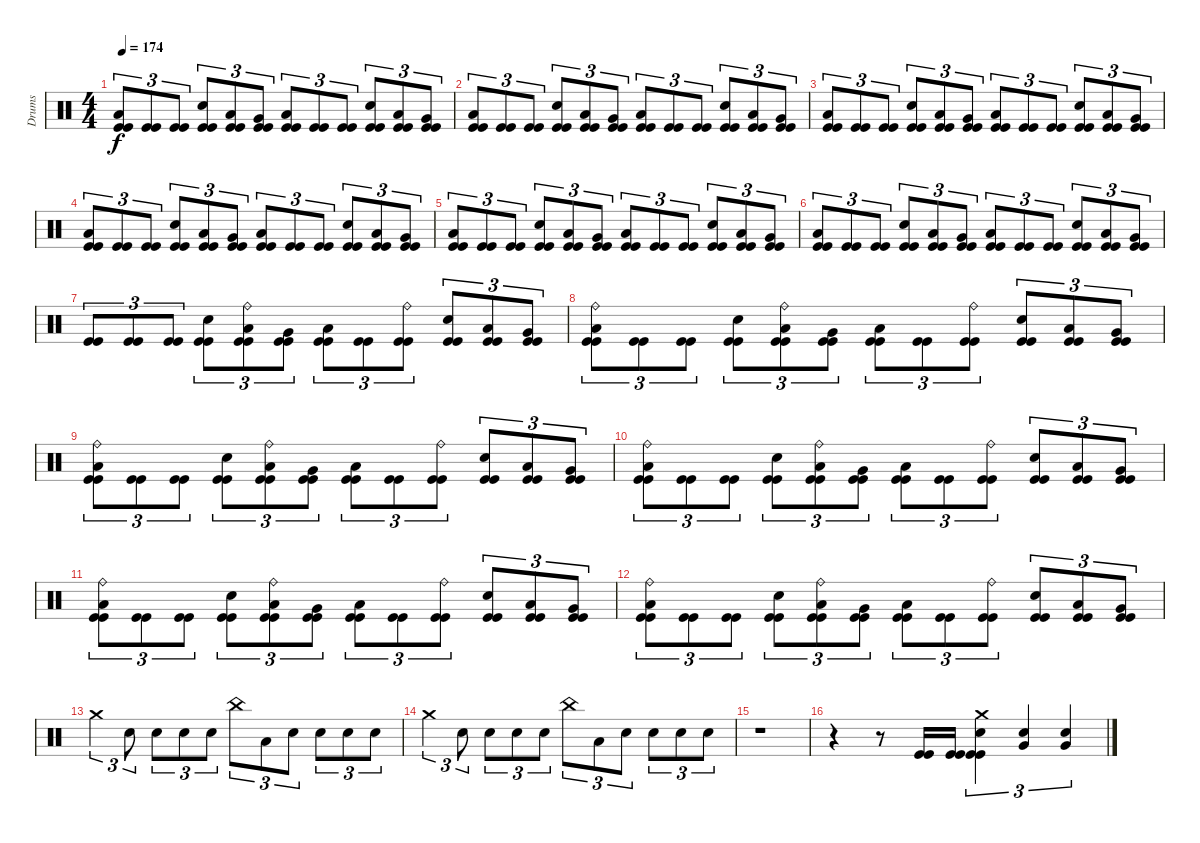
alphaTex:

\track ("Drums" "Drums") {instrument percussion}
\staff {score}
\articulation defaults
\ts (4 4)
\tempo 174
\clef neutral
\ks c
("Kick (hit)" "Kick (hit)" "Low Floor Tom (hit)").8{tu (3 2) dy f} ("Kick (hit)" "Kick (hit)").8{tu (3 2)} ("Kick (hit)" "Kick (hit)").8{tu (3 2)} ("Kick (hit)" "Kick (hit)" "Snare (hit) 2").8{tu (3 2)} ("Kick (hit)" "Kick (hit)" "Low Tom (hit)").8{tu (3 2)} ("Kick (hit)" "Kick (hit)" "Very Low Tom (hit)").8{tu (3 2)} ("Kick (hit)" "Kick (hit)" "Low Floor Tom (hit)").8{tu (3 2)} ("Kick (hit)" "Kick (hit)").8{tu (3 2)} ("Kick (hit)" "Kick (hit)").8{tu (3 2)} ("Kick (hit)" "Kick (hit)" "Snare (hit) 2").8{tu (3 2)} ("Kick (hit)" "Kick (hit)" "Low Tom (hit)").8{tu (3 2)} ("Kick (hit)" "Kick (hit)" "Very Low Tom (hit)").8{tu (3 2)} |
("Kick (hit)" "Kick (hit)" "Low Floor Tom (hit)").8{tu (3 2)} ("Kick (hit)" "Kick (hit)").8{tu (3 2)} ("Kick (hit)" "Kick (hit)").8{tu (3 2)} ("Kick (hit)" "Kick (hit)" "Snare (hit) 2").8{tu (3 2)} ("Kick (hit)" "Kick (hit)" "Low Tom (hit)").8{tu (3 2)} ("Kick (hit)" "Kick (hit)" "Very Low Tom (hit)").8{tu (3 2)} ("Kick (hit)" "Kick (hit)" "Low Floor Tom (hit)").8{tu (3 2)} ("Kick (hit)" "Kick (hit)").8{tu (3 2)} ("Kick (hit)" "Kick (hit)").8{tu (3 2)} ("Kick (hit)" "Kick (hit)" "Snare (hit) 2").8{tu (3 2)} ("Kick (hit)" "Kick (hit)" "Low Tom (hit)").8{tu (3 2)} ("Kick (hit)" "Kick (hit)" "Very Low Tom (hit)").8{tu (3 2)} |
("Kick (hit)" "Kick (hit)" "Low Floor Tom (hit)").8{tu (3 2)} ("Kick (hit)" "Kick (hit)").8{tu (3 2)} ("Kick (hit)" "Kick (hit)").8{tu (3 2)} ("Kick (hit)" "Kick (hit)" "Snare (hit) 2").8{tu (3 2)} ("Kick (hit)" "Kick (hit)" "Low Tom (hit)").8{tu (3 2)} ("Kick (hit)" "Kick (hit)" "Very Low Tom (hit)").8{tu (3 2)} ("Kick (hit)" "Kick (hit)" "Low Floor Tom (hit)").8{tu (3 2)} ("Kick (hit)" "Kick (hit)").8{tu (3 2)} ("Kick (hit)" "Kick (hit)").8{tu (3 2)} ("Kick (hit)" "Kick (hit)" "Snare (hit) 2").8{tu (3 2)} ("Kick (hit)" "Kick (hit)" "Low Tom (hit)").8{tu (3 2)} ("Kick (hit)" "Kick (hit)" "Very Low Tom (hit)").8{tu (3 2)} |
("Kick (hit)" "Kick (hit)" "Low Floor Tom (hit)").8{tu (3 2)} ("Kick (hit)" "Kick (hit)").8{tu (3 2)} ("Kick (hit)" "Kick (hit)").8{tu (3 2)} ("Kick (hit)" "Kick (hit)" "Snare (hit) 2").8{tu (3 2)} ("Kick (hit)" "Kick (hit)" "Low Tom (hit)").8{tu (3 2)} ("Kick (hit)" "Kick (hit)" "Very Low Tom (hit)").8{tu (3 2)} ("Kick (hit)" "Kick (hit)" "Low Floor Tom (hit)").8{tu (3 2)} ("Kick (hit)" "Kick (hit)").8{tu (3 2)} ("Kick (hit)" "Kick (hit)").8{tu (3 2)} ("Kick (hit)" "Kick (hit)" "Snare (hit) 2").8{tu (3 2)} ("Kick (hit)" "Kick (hit)" "Low Tom (hit)").8{tu (3 2)} ("Kick (hit)" "Kick (hit)" "Very Low Tom (hit)").8{tu (3 2)} |
("Kick (hit)" "Kick (hit)" "Low Floor Tom (hit)").8{tu (3 2)} ("Kick (hit)" "Kick (hit)").8{tu (3 2)} ("Kick (hit)" "Kick (hit)").8{tu (3 2)} ("Kick (hit)" "Kick (hit)" "Snare (hit) 2").8{tu (3 2)} ("Kick (hit)" "Kick (hit)" "Low Tom (hit)").8{tu (3 2)} ("Kick (hit)" "Kick (hit)" "Very Low Tom (hit)").8{tu (3 2)} ("Kick (hit)" "Kick (hit)" "Low Floor Tom (hit)").8{tu (3 2)} ("Kick (hit)" "Kick (hit)").8{tu (3 2)} ("Kick (hit)" "Kick (hit)").8{tu (3 2)} ("Kick (hit)" "Kick (hit)" "Snare (hit) 2").8{tu (3 2)} ("Kick (hit)" "Kick (hit)" "Low Tom (hit)").8{tu (3 2)} ("Kick (hit)" "Kick (hit)" "Very Low Tom (hit)").8{tu (3 2)} |
("Kick (hit)" "Kick (hit)" "Low Floor Tom (hit)").8{tu (3 2)} ("Kick (hit)" "Kick (hit)").8{tu (3 2)} ("Kick (hit)" "Kick (hit)").8{tu (3 2)} ("Kick (hit)" "Kick (hit)" "Snare (hit) 2").8{tu (3 2)} ("Kick (hit)" "Kick (hit)" "Low Tom (hit)").8{tu (3 2)} ("Kick (hit)" "Kick (hit)" "Very Low Tom (hit)").8{tu (3 2)} ("Kick (hit)" "Kick (hit)" "Low Floor Tom (hit)").8{tu (3 2)} ("Kick (hit)" "Kick (hit)").8{tu (3 2)} ("Kick (hit)" "Kick (hit)").8{tu (3 2)} ("Kick (hit)" "Kick (hit)" "Snare (hit) 2").8{tu (3 2)} ("Kick (hit)" "Kick (hit)" "Low Tom (hit)").8{tu (3 2)} ("Kick (hit)" "Kick (hit)" "Very Low Tom (hit)").8{tu (3 2)} |
("Kick (hit)" "Kick (hit)").8{tu (3 2)} ("Kick (hit)" "Kick (hit)").8{tu (3 2)} ("Kick (hit)" "Kick (hit)").8{tu (3 2)} ("Kick (hit)" "Kick (hit)" "Snare (hit) 2").8{tu (3 2)} ("Kick (hit)" "Kick (hit)" "Low Tom (hit)" "Ride (bell)").8{tu (3 2)} ("Kick (hit)" "Kick (hit)" "Very Low Tom (hit)").8{tu (3 2)} ("Kick (hit)" "Kick (hit)" "Low Floor Tom (hit)").8{tu (3 2)} ("Kick (hit)" "Kick (hit)").8{tu (3 2)} ("Kick (hit)" "Kick (hit)" "Ride (bell)").8{tu (3 2)} ("Kick (hit)" "Kick (hit)" "Snare (hit) 2").8{tu (3 2)} ("Kick (hit)" "Kick (hit)" "Low Tom (hit)").8{tu (3 2)} ("Kick (hit)" "Kick (hit)" "Very Low Tom (hit)").8{tu (3 2)} |
("Kick (hit)" "Kick (hit)" "Low Floor Tom (hit)" "Ride (bell)").8{tu (3 2)} ("Kick (hit)" "Kick (hit)").8{tu (3 2)} ("Kick (hit)" "Kick (hit)").8{tu (3 2)} ("Kick (hit)" "Kick (hit)" "Snare (hit) 2").8{tu (3 2)} ("Kick (hit)" "Kick (hit)" "Low Tom (hit)" "Ride (bell)").8{tu (3 2)} ("Kick (hit)" "Kick (hit)" "Very Low Tom (hit)").8{tu (3 2)} ("Kick (hit)" "Kick (hit)" "Low Floor Tom (hit)").8{tu (3 2)} ("Kick (hit)" "Kick (hit)").8{tu (3 2)} ("Kick (hit)" "Kick (hit)" "Ride (bell)").8{tu (3 2)} ("Kick (hit)" "Kick (hit)" "Snare (hit) 2").8{tu (3 2)} ("Kick (hit)" "Kick (hit)" "Low Tom (hit)").8{tu (3 2)} ("Kick (hit)" "Kick (hit)" "Very Low Tom (hit)").8{tu (3 2)} |
("Kick (hit)" "Kick (hit)" "Low Floor Tom (hit)" "Ride (bell)").8{tu (3 2)} ("Kick (hit)" "Kick (hit)").8{tu (3 2)} ("Kick (hit)" "Kick (hit)").8{tu (3 2)} ("Kick (hit)" "Kick (hit)" "Snare (hit) 2").8{tu (3 2)} ("Kick (hit)" "Kick (hit)" "Low Tom (hit)" "Ride (bell)").8{tu (3 2)} ("Kick (hit)" "Kick (hit)" "Very Low Tom (hit)").8{tu (3 2)} ("Kick (hit)" "Kick (hit)" "Low Floor Tom (hit)").8{tu (3 2)} ("Kick (hit)" "Kick (hit)").8{tu (3 2)} ("Kick (hit)" "Kick (hit)" "Ride (bell)").8{tu (3 2)} ("Kick (hit)" "Kick (hit)" "Snare (hit) 2").8{tu (3 2)} ("Kick (hit)" "Kick (hit)" "Low Tom (hit)").8{tu (3 2)} ("Kick (hit)" "Kick (hit)" "Very Low Tom (hit)").8{tu (3 2)} |
("Kick (hit)" "Kick (hit)" "Low Floor Tom (hit)" "Ride (bell)").8{tu (3 2)} ("Kick (hit)" "Kick (hit)").8{tu (3 2)} ("Kick (hit)" "Kick (hit)").8{tu (3 2)} ("Kick (hit)" "Kick (hit)" "Snare (hit) 2").8{tu (3 2)} ("Kick (hit)" "Kick (hit)" "Low Tom (hit)" "Ride (bell)").8{tu (3 2)} ("Kick (hit)" "Kick (hit)" "Very Low Tom (hit)").8{tu (3 2)} ("Kick (hit)" "Kick (hit)" "Low Floor Tom (hit)").8{tu (3 2)} ("Kick (hit)" "Kick (hit)").8{tu (3 2)} ("Kick (hit)" "Kick (hit)" "Ride (bell)").8{tu (3 2)} ("Kick (hit)" "Kick (hit)" "Snare (hit) 2").8{tu (3 2)} ("Kick (hit)" "Kick (hit)" "Low Tom (hit)").8{tu (3 2)} ("Kick (hit)" "Kick (hit)" "Very Low Tom (hit)").8{tu (3 2)} |
("Kick (hit)" "Kick (hit)" "Low Floor Tom (hit)" "Ride (bell)").8{tu (3 2)} ("Kick (hit)" "Kick (hit)").8{tu (3 2)} ("Kick (hit)" "Kick (hit)").8{tu (3 2)} ("Kick (hit)" "Kick (hit)" "Snare (hit) 2").8{tu (3 2)} ("Kick (hit)" "Kick (hit)" "Low Tom (hit)" "Ride (bell)").8{tu (3 2)} ("Kick (hit)" "Kick (hit)" "Very Low Tom (hit)").8{tu (3 2)} ("Kick (hit)" "Kick (hit)" "Low Floor Tom (hit)").8{tu (3 2)} ("Kick (hit)" "Kick (hit)").8{tu (3 2)} ("Kick (hit)" "Kick (hit)" "Ride (bell)").8{tu (3 2)} ("Kick (hit)" "Kick (hit)" "Snare (hit) 2").8{tu (3 2)} ("Kick (hit)" "Kick (hit)" "Low Tom (hit)").8{tu (3 2)} ("Kick (hit)" "Kick (hit)" "Very Low Tom (hit)").8{tu (3 2)} |
("Kick (hit)" "Kick (hit)" "Low Floor Tom (hit)" "Ride (bell)").8{tu (3 2)} ("Kick (hit)" "Kick (hit)").8{tu (3 2)} ("Kick (hit)" "Kick (hit)").8{tu (3 2)} ("Kick (hit)" "Kick (hit)" "Snare (hit) 2").8{tu (3 2)} ("Kick (hit)" "Kick (hit)" "Low Tom (hit)" "Ride (bell)").8{tu (3 2)} ("Kick (hit)" "Kick (hit)" "Very Low Tom (hit)").8{tu (3 2)} ("Kick (hit)" "Kick (hit)" "Low Floor Tom (hit)").8{tu (3 2)} ("Kick (hit)" "Kick (hit)").8{tu (3 2)} ("Kick (hit)" "Kick (hit)" "Ride (bell)").8{tu (3 2)} ("Kick (hit)" "Kick (hit)" "Snare (hit) 2").8{tu (3 2)} ("Kick (hit)" "Kick (hit)" "Low Tom (hit)").8{tu (3 2)} ("Kick (hit)" "Kick (hit)" "Very Low Tom (hit)").8{tu (3 2)} |
"Crash medium (hit)".4{tu (3 2)} "Snare (hit) 2".8{tu (3 2)} "Snare (hit) 2".8{tu (3 2)} "Snare (hit) 2".8{tu (3 2)} "Snare (hit) 2".8{tu (3 2)} "China (hit)".8{tu (3 2)} "Low Floor Tom (hit)".8{tu (3 2)} "Snare (hit) 2".8{tu (3 2)} "Snare (hit) 2".8{tu (3 2)} "Snare (hit) 2".8{tu (3 2)} "Snare (hit) 2".8{tu (3 2)} |
"Crash medium (hit)".4{tu (3 2)} "Snare (hit) 2".8{tu (3 2)} "Snare (hit) 2".8{tu (3 2)} "Snare (hit) 2".8{tu (3 2)} "Snare (hit) 2".8{tu (3 2)} "China (hit)".8{tu (3 2)} "Low Floor Tom (hit)".8{tu (3 2)} "Snare (hit) 2".8{tu (3 2)} "Snare (hit) 2".8{tu (3 2)} "Snare (hit) 2".8{tu (3 2)} "Snare (hit) 2".8{tu (3 2)} |
r.1 |
r.4 r.8 ("Kick (hit)" "Kick (hit)").16 ("Kick (hit)" "Kick (hit)").16 ("Kick (hit)" "Kick (hit)" "Snare (hit) 2" "Crash medium (hit)").4{tu (3 2)} ("Very Low Tom (hit)" "Snare (hit) 2").4{tu (3 2)} ("Very Low Tom (hit)" "Snare (hit) 2").4{tu (3 2)}
